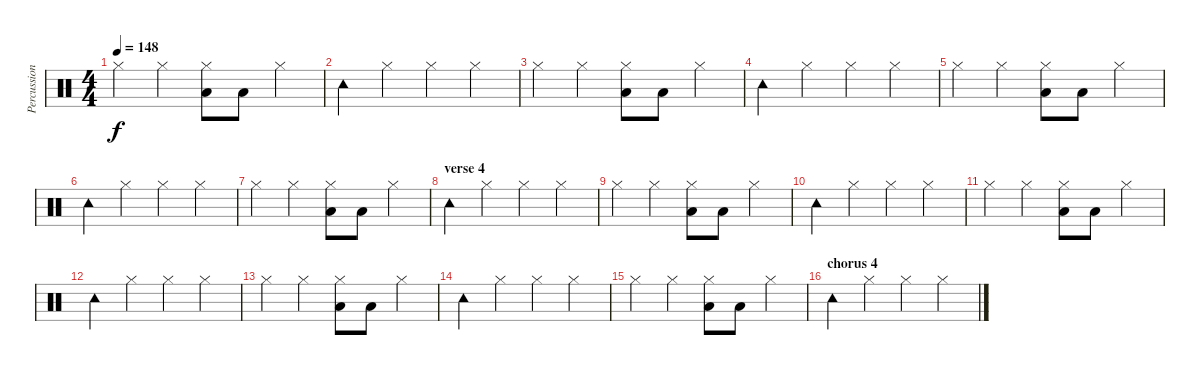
\track ("Percussions" "Percussion") {instrument percussion}
\staff {score}
\articulation defaults
\ts (4 4)
\tempo 148
\clef neutral
\ks c "Hi-Hat (closed)".4{dy f} "Hi-Hat (closed)".4
("Hi-Hat (closed)" "Low Tom (hit)").8 "Low Tom (hit)".8 "Hi-Hat (closed)".4 |
"Tambourine (hit)".4 "Hi-Hat (closed)".4 "Hi-Hat (closed)".4 "Hi-Hat (closed)".4 |
"Hi-Hat (closed)".4 "Hi-Hat (closed)".4 ("Hi-Hat (closed)" "Low Tom (hit)").8 "Low Tom (hit)".8 "Hi-Hat (closed)".4 |
"Tambourine (hit)".4 "Hi-Hat (closed)".4 "Hi-Hat (closed)".4 "Hi-Hat (closed)".4 |
"Hi-Hat (closed)".4 "Hi-Hat (closed)".4 ("Hi-Hat (closed)" "Low Tom (hit)").8 "Low Tom (hit)".8 "Hi-Hat (closed)".4 |
"Tambourine (hit)".4 "Hi-Hat (closed)".4 "Hi-Hat (closed)".4 "Hi-Hat (closed)".4 |
"Hi-Hat (closed)".4 "Hi-Hat (closed)".4 ("Hi-Hat (closed)" "Low Tom (hit)").8 "Low Tom (hit)".8 "Hi-Hat (closed)".4 |
\section ("" "verse 4")
"Tambourine (hit)".4 "Hi-Hat (closed)".4 "Hi-Hat (closed)".4 "Hi-Hat (closed)".4 |
"Hi-Hat (closed)".4 "Hi-Hat (closed)".4 ("Hi-Hat (closed)" "Low Tom (hit)").8 "Low Tom (hit)".8 "Hi-Hat (closed)".4 |
"Tambourine (hit)".4 "Hi-Hat (closed)".4 "Hi-Hat (closed)".4 "Hi-Hat (closed)".4 |
"Hi-Hat (closed)".4 "Hi-Hat (closed)".4 ("Hi-Hat (closed)" "Low Tom (hit)").8 "Low Tom (hit)".8 "Hi-Hat (closed)".4 |
"Tambourine (hit)".4 "Hi-Hat (closed)".4 "Hi-Hat (closed)".4 "Hi-Hat (closed)".4 |
"Hi-Hat (closed)".4 "Hi-Hat (closed)".4 ("Hi-Hat (closed)" "Low Tom (hit)").8 "Low Tom (hit)".8 "Hi-Hat (closed)".4 |
"Tambourine (hit)".4 "Hi-Hat (closed)".4 "Hi-Hat (closed)".4 "Hi-Hat (closed)".4 |
"Hi-Hat (closed)".4 "Hi-Hat (closed)".4 ("Hi-Hat (closed)" "Low Tom (hit)").8 "Low Tom (hit)".8 "Hi-Hat (closed)".4 |
\section ("" "chorus 4")
"Tambourine (hit)".4 "Hi-Hat (closed)".4 "Hi-Hat (closed)".4 "Hi-Hat (closed)".4
